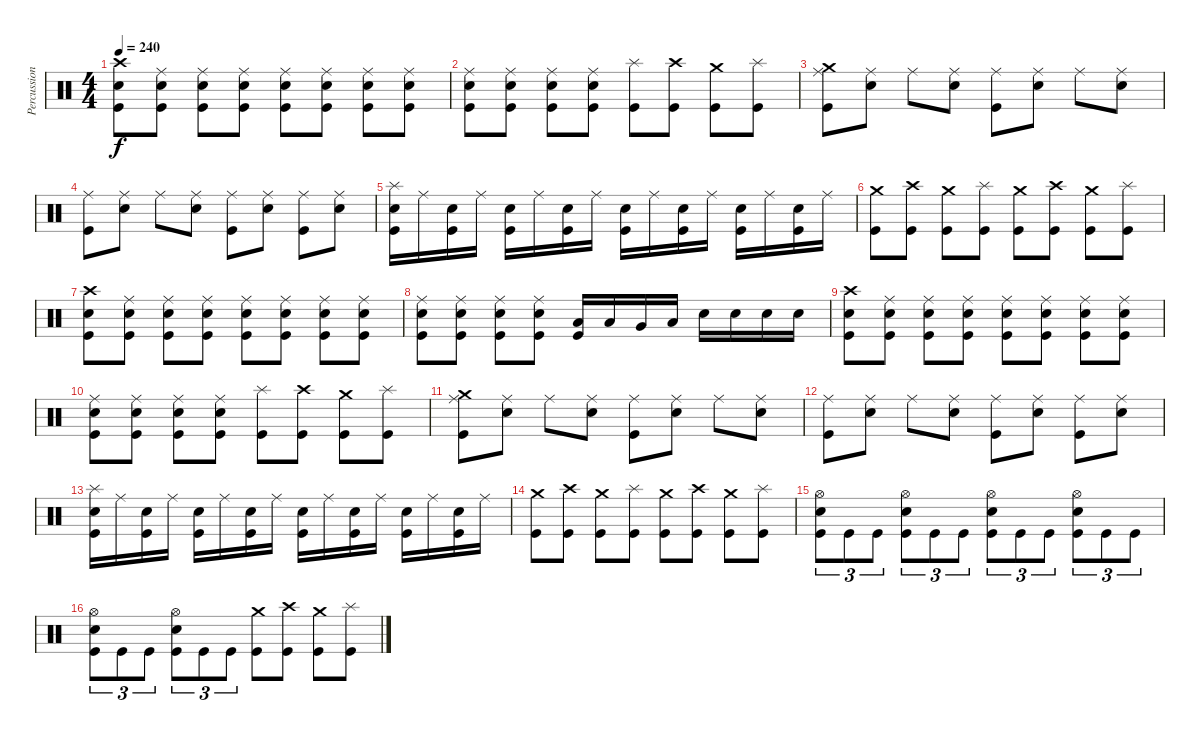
\track ("Percussions" "Percussion") {instrument percussion}
\staff {score}
\articulation defaults
\ts (4 4)
\tempo 240
\clef neutral
\ks c
("Crash high (hit)" "Electric Snare (hit)" "Kick (hit)").8{dy f} ("Electric Snare (hit)" "Ride (middle)" "Kick (hit)").8 ("Electric Snare (hit)" "Ride (middle)" "Kick (hit)").8 ("Electric Snare (hit)" "Ride (middle)" "Kick (hit)").8 ("Electric Snare (hit)" "Ride (middle)" "Kick (hit)").8 ("Electric Snare (hit)" "Ride (middle)" "Kick (hit)").8 ("Electric Snare (hit)" "Ride (middle)" "Kick (hit)").8 ("Electric Snare (hit)" "Ride (middle)" "Kick (hit)").8 |
("Electric Snare (hit)" "Ride (middle)" "Kick (hit)").8 ("Electric Snare (hit)" "Ride (middle)" "Kick (hit)").8 ("Electric Snare (hit)" "Ride (middle)" "Kick (hit)").8 ("Electric Snare (hit)" "Ride (middle)" "Kick (hit)").8 ("Splash (hit)" "Kick (hit)").8 ("Crash high (hit)" "Kick (hit)").8 ("Crash medium (hit)" "Kick (hit)").8 ("Splash (hit)" "Kick (hit)").8 |
("Crash medium (hit)" "Ride (middle)" "Kick (hit)").8 ("Electric Snare (hit)" "Ride (middle)").8 "Ride (middle)".8 ("Electric Snare (hit)" "Ride (middle)").8 ("Ride (middle)" "Kick (hit)").8 ("Electric Snare (hit)" "Ride (middle)").8 "Ride (middle)".8 ("Electric Snare (hit)" "Ride (middle)").8 |
("Ride (middle)" "Kick (hit)").8 ("Electric Snare (hit)" "Ride (middle)").8 "Ride (middle)".8 ("Electric Snare (hit)" "Ride (middle)").8 ("Ride (middle)" "Kick (hit)").8 ("Electric Snare (hit)" "Ride (middle)").8 ("Ride (middle)" "Kick (hit)").8 ("Electric Snare (hit)" "Ride (middle)").8 |
("Splash (hit)" "Electric Snare (hit)" "Kick (hit)").16 "Ride (middle)".16 ("Electric Snare (hit)" "Kick (hit)").16 "Ride (middle)".16 ("Electric Snare (hit)" "Kick (hit)").16 "Ride (middle)".16 ("Electric Snare (hit)" "Kick (hit)").16 "Ride (middle)".16 ("Electric Snare (hit)" "Kick (hit)").16 "Ride (middle)".16 ("Electric Snare (hit)" "Kick (hit)").16 "Ride (middle)".16 ("Electric Snare (hit)" "Kick (hit)").16 "Ride (middle)".16 ("Electric Snare (hit)" "Kick (hit)").16 "Ride (middle)".16 |
("Crash medium (hit)" "Kick (hit)").8 ("Crash high (hit)" "Kick (hit)").8 ("Crash medium (hit)" "Kick (hit)").8 ("Splash (hit)" "Kick (hit)").8 ("Crash medium (hit)" "Kick (hit)").8 ("Crash high (hit)" "Kick (hit)").8 ("Crash medium (hit)" "Kick (hit)").8 ("Splash (hit)" "Kick (hit)").8 |
("Crash high (hit)" "Electric Snare (hit)" "Kick (hit)").8 ("Electric Snare (hit)" "Ride (middle)" "Kick (hit)").8 ("Electric Snare (hit)" "Ride (middle)" "Kick (hit)").8 ("Electric Snare (hit)" "Ride (middle)" "Kick (hit)").8 ("Electric Snare (hit)" "Ride (middle)" "Kick (hit)").8 ("Electric Snare (hit)" "Ride (middle)" "Kick (hit)").8 ("Electric Snare (hit)" "Ride (middle)" "Kick (hit)").8 ("Electric Snare (hit)" "Ride (middle)" "Kick (hit)").8 |
("Electric Snare (hit)" "Ride (middle)" "Kick (hit)").8 ("Electric Snare (hit)" "Ride (middle)" "Kick (hit)").8 ("Electric Snare (hit)" "Ride (middle)" "Kick (hit)").8 ("Electric Snare (hit)" "Ride (middle)" "Kick (hit)").8 ("Low Tom (hit)" "Kick (hit)").16 "Low Tom (hit)".16 "Very Low Tom (hit)".16 "Low Floor Tom (hit)".16 "Electric Snare (hit)".16 "Electric Snare (hit)".16 "Electric Snare (hit)".16 "Electric Snare (hit)".16 |
("Crash high (hit)" "Electric Snare (hit)" "Kick (hit)").8 ("Electric Snare (hit)" "Ride (middle)" "Kick (hit)").8 ("Electric Snare (hit)" "Ride (middle)" "Kick (hit)").8 ("Electric Snare (hit)" "Ride (middle)" "Kick (hit)").8 ("Electric Snare (hit)" "Ride (middle)" "Kick (hit)").8 ("Electric Snare (hit)" "Ride (middle)" "Kick (hit)").8 ("Electric Snare (hit)" "Ride (middle)" "Kick (hit)").8 ("Electric Snare (hit)" "Ride (middle)" "Kick (hit)").8 |
("Electric Snare (hit)" "Ride (middle)" "Kick (hit)").8 ("Electric Snare (hit)" "Ride (middle)" "Kick (hit)").8 ("Electric Snare (hit)" "Ride (middle)" "Kick (hit)").8 ("Electric Snare (hit)" "Ride (middle)" "Kick (hit)").8 ("Splash (hit)" "Kick (hit)").8 ("Crash high (hit)" "Kick (hit)").8 ("Crash medium (hit)" "Kick (hit)").8 ("Splash (hit)" "Kick (hit)").8 |
("Crash medium (hit)" "Ride (middle)" "Kick (hit)").8 ("Electric Snare (hit)" "Ride (middle)").8 "Ride (middle)".8 ("Electric Snare (hit)" "Ride (middle)").8 ("Ride (middle)" "Kick (hit)").8 ("Electric Snare (hit)" "Ride (middle)").8 "Ride (middle)".8 ("Electric Snare (hit)" "Ride (middle)").8 |
("Ride (middle)" "Kick (hit)").8 ("Electric Snare (hit)" "Ride (middle)").8 "Ride (middle)".8 ("Electric Snare (hit)" "Ride (middle)").8 ("Ride (middle)" "Kick (hit)").8 ("Electric Snare (hit)" "Ride (middle)").8 ("Ride (middle)" "Kick (hit)").8 ("Electric Snare (hit)" "Ride (middle)").8 |
("Splash (hit)" "Electric Snare (hit)" "Kick (hit)").16 "Ride (middle)".16 ("Electric Snare (hit)" "Kick (hit)").16 "Ride (middle)".16 ("Electric Snare (hit)" "Kick (hit)").16 "Ride (middle)".16 ("Electric Snare (hit)" "Kick (hit)").16 "Ride (middle)".16 ("Electric Snare (hit)" "Kick (hit)").16 "Ride (middle)".16 ("Electric Snare (hit)" "Kick (hit)").16 "Ride (middle)".16 ("Electric Snare (hit)" "Kick (hit)").16 "Ride (middle)".16 ("Electric Snare (hit)" "Kick (hit)").16 "Ride (middle)".16 |
("Crash medium (hit)" "Kick (hit)").8 ("Crash high (hit)" "Kick (hit)").8 ("Crash medium (hit)" "Kick (hit)").8 ("Splash (hit)" "Kick (hit)").8 ("Crash medium (hit)" "Kick (hit)").8 ("Crash high (hit)" "Kick (hit)").8 ("Crash medium (hit)" "Kick (hit)").8 ("Splash (hit)" "Kick (hit)").8 |
("Electric Snare (hit)" "Hi-Hat (open)" "Kick (hit)").8{tu (3 2)} "Kick (hit)".8{tu (3 2)} "Kick (hit)".8{tu (3 2)} ("Electric Snare (hit)" "Hi-Hat (open)" "Kick (hit)").8{tu (3 2)} "Kick (hit)".8{tu (3 2)} "Kick (hit)".8{tu (3 2)} ("Electric Snare (hit)" "Hi-Hat (open)" "Kick (hit)").8{tu (3 2)} "Kick (hit)".8{tu (3 2)} "Kick (hit)".8{tu (3 2)} ("Electric Snare (hit)" "Hi-Hat (open)" "Kick (hit)").8{tu (3 2)} "Kick (hit)".8{tu (3 2)} "Kick (hit)".8{tu (3 2)} |
("Electric Snare (hit)" "Hi-Hat (open)" "Kick (hit)").8{tu (3 2)} "Kick (hit)".8{tu (3 2)} "Kick (hit)".8{tu (3 2)} ("Electric Snare (hit)" "Hi-Hat (open)" "Kick (hit)").8{tu (3 2)} "Kick (hit)".8{tu (3 2)} "Kick (hit)".8{tu (3 2)} ("Crash medium (hit)" "Kick (hit)").8 ("Crash high (hit)" "Kick (hit)").8 ("Crash medium (hit)" "Kick (hit)").8 ("Splash (hit)" "Kick (hit)").8
